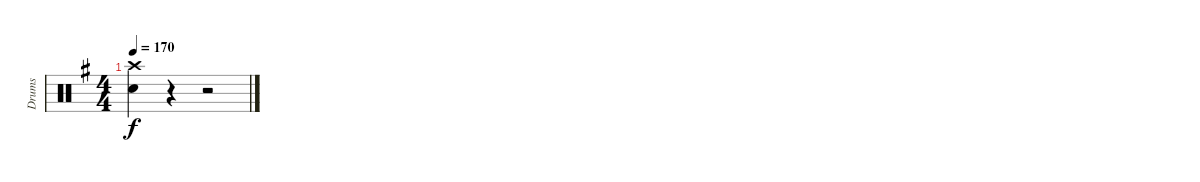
\track ("Drums" "Drums") {instrument percussion}
\staff {score}
\articulation defaults
\ts (4 4)
\tempo 170
\clef neutral
\ks eminor
("Crash high (hit)" "Snare (hit) 2").4{dy f} r.4 r.2
